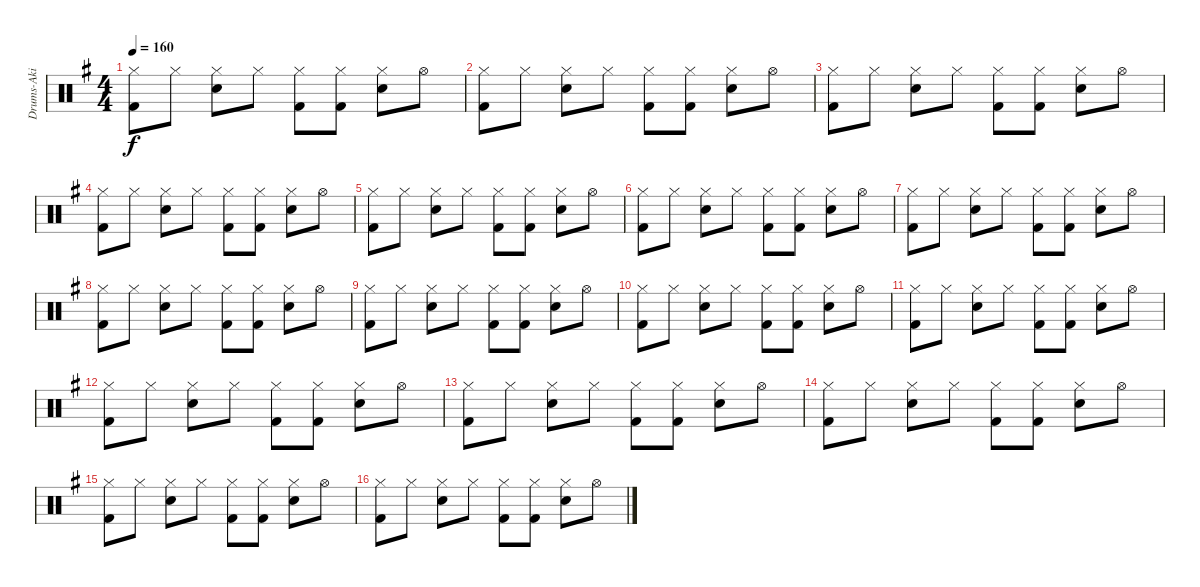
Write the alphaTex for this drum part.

\track ("Drums-Aki" "Drums-Aki") {instrument percussion}
\staff {score}
\articulation defaults
\ts (4 4)
\tempo 160
\clef neutral
\ks g
("Hi-Hat (closed)" "Kick (hit) 2").8{dy f} "Hi-Hat (closed)".8 ("Hi-Hat (closed)" "Electric Snare (hit)").8 "Hi-Hat (closed)".8 ("Hi-Hat (closed)" "Kick (hit) 2").8 ("Hi-Hat (closed)" "Kick (hit) 2").8 ("Hi-Hat (closed)" "Electric Snare (hit)").8 "Hi-Hat (open)".8 |
("Hi-Hat (closed)" "Kick (hit) 2").8 "Hi-Hat (closed)".8 ("Hi-Hat (closed)" "Electric Snare (hit)").8 "Hi-Hat (closed)".8 ("Hi-Hat (closed)" "Kick (hit) 2").8 ("Hi-Hat (closed)" "Kick (hit) 2").8 ("Hi-Hat (closed)" "Electric Snare (hit)").8 "Hi-Hat (open)".8 |
("Hi-Hat (closed)" "Kick (hit) 2").8 "Hi-Hat (closed)".8 ("Hi-Hat (closed)" "Electric Snare (hit)").8 "Hi-Hat (closed)".8 ("Hi-Hat (closed)" "Kick (hit) 2").8 ("Hi-Hat (closed)" "Kick (hit) 2").8 ("Hi-Hat (closed)" "Electric Snare (hit)").8 "Hi-Hat (open)".8 |
("Hi-Hat (closed)" "Kick (hit) 2").8 "Hi-Hat (closed)".8 ("Hi-Hat (closed)" "Electric Snare (hit)").8 "Hi-Hat (closed)".8 ("Hi-Hat (closed)" "Kick (hit) 2").8 ("Hi-Hat (closed)" "Kick (hit) 2").8 ("Hi-Hat (closed)" "Electric Snare (hit)").8 "Hi-Hat (open)".8 |
("Hi-Hat (closed)" "Kick (hit) 2").8 "Hi-Hat (closed)".8 ("Hi-Hat (closed)" "Electric Snare (hit)").8 "Hi-Hat (closed)".8 ("Hi-Hat (closed)" "Kick (hit) 2").8 ("Hi-Hat (closed)" "Kick (hit) 2").8 ("Hi-Hat (closed)" "Electric Snare (hit)").8 "Hi-Hat (open)".8 |
("Hi-Hat (closed)" "Kick (hit) 2").8 "Hi-Hat (closed)".8 ("Hi-Hat (closed)" "Electric Snare (hit)").8 "Hi-Hat (closed)".8 ("Hi-Hat (closed)" "Kick (hit) 2").8 ("Hi-Hat (closed)" "Kick (hit) 2").8 ("Hi-Hat (closed)" "Electric Snare (hit)").8 "Hi-Hat (open)".8 |
("Hi-Hat (closed)" "Kick (hit) 2").8 "Hi-Hat (closed)".8 ("Hi-Hat (closed)" "Electric Snare (hit)").8 "Hi-Hat (closed)".8 ("Hi-Hat (closed)" "Kick (hit) 2").8 ("Hi-Hat (closed)" "Kick (hit) 2").8 ("Hi-Hat (closed)" "Electric Snare (hit)").8 "Hi-Hat (open)".8 |
("Hi-Hat (closed)" "Kick (hit) 2").8 "Hi-Hat (closed)".8 ("Hi-Hat (closed)" "Electric Snare (hit)").8 "Hi-Hat (closed)".8 ("Hi-Hat (closed)" "Kick (hit) 2").8 ("Hi-Hat (closed)" "Kick (hit) 2").8 ("Hi-Hat (closed)" "Electric Snare (hit)").8 "Hi-Hat (open)".8 |
("Hi-Hat (closed)" "Kick (hit) 2").8 "Hi-Hat (closed)".8 ("Hi-Hat (closed)" "Electric Snare (hit)").8 "Hi-Hat (closed)".8 ("Hi-Hat (closed)" "Kick (hit) 2").8 ("Hi-Hat (closed)" "Kick (hit) 2").8 ("Hi-Hat (closed)" "Electric Snare (hit)").8 "Hi-Hat (open)".8 |
("Hi-Hat (closed)" "Kick (hit) 2").8 "Hi-Hat (closed)".8 ("Hi-Hat (closed)" "Electric Snare (hit)").8 "Hi-Hat (closed)".8 ("Hi-Hat (closed)" "Kick (hit) 2").8 ("Hi-Hat (closed)" "Kick (hit) 2").8 ("Hi-Hat (closed)" "Electric Snare (hit)").8 "Hi-Hat (open)".8 |
("Hi-Hat (closed)" "Kick (hit) 2").8 "Hi-Hat (closed)".8 ("Hi-Hat (closed)" "Electric Snare (hit)").8 "Hi-Hat (closed)".8 ("Hi-Hat (closed)" "Kick (hit) 2").8 ("Hi-Hat (closed)" "Kick (hit) 2").8 ("Hi-Hat (closed)" "Electric Snare (hit)").8 "Hi-Hat (open)".8 |
("Hi-Hat (closed)" "Kick (hit) 2").8 "Hi-Hat (closed)".8 ("Hi-Hat (closed)" "Electric Snare (hit)").8 "Hi-Hat (closed)".8 ("Hi-Hat (closed)" "Kick (hit) 2").8 ("Hi-Hat (closed)" "Kick (hit) 2").8 ("Hi-Hat (closed)" "Electric Snare (hit)").8 "Hi-Hat (open)".8 |
("Hi-Hat (closed)" "Kick (hit) 2").8 "Hi-Hat (closed)".8 ("Hi-Hat (closed)" "Electric Snare (hit)").8 "Hi-Hat (closed)".8 ("Hi-Hat (closed)" "Kick (hit) 2").8 ("Hi-Hat (closed)" "Kick (hit) 2").8 ("Hi-Hat (closed)" "Electric Snare (hit)").8 "Hi-Hat (open)".8 |
("Hi-Hat (closed)" "Kick (hit) 2").8 "Hi-Hat (closed)".8 ("Hi-Hat (closed)" "Electric Snare (hit)").8 "Hi-Hat (closed)".8 ("Hi-Hat (closed)" "Kick (hit) 2").8 ("Hi-Hat (closed)" "Kick (hit) 2").8 ("Hi-Hat (closed)" "Electric Snare (hit)").8 "Hi-Hat (open)".8 |
("Hi-Hat (closed)" "Kick (hit) 2").8 "Hi-Hat (closed)".8 ("Hi-Hat (closed)" "Electric Snare (hit)").8 "Hi-Hat (closed)".8 ("Hi-Hat (closed)" "Kick (hit) 2").8 ("Hi-Hat (closed)" "Kick (hit) 2").8 ("Hi-Hat (closed)" "Electric Snare (hit)").8 "Hi-Hat (open)".8 |
("Hi-Hat (closed)" "Kick (hit) 2").8 "Hi-Hat (closed)".8 ("Hi-Hat (closed)" "Electric Snare (hit)").8 "Hi-Hat (closed)".8 ("Hi-Hat (closed)" "Kick (hit) 2").8 ("Hi-Hat (closed)" "Kick (hit) 2").8 ("Hi-Hat (closed)" "Electric Snare (hit)").8 "Hi-Hat (open)".8
